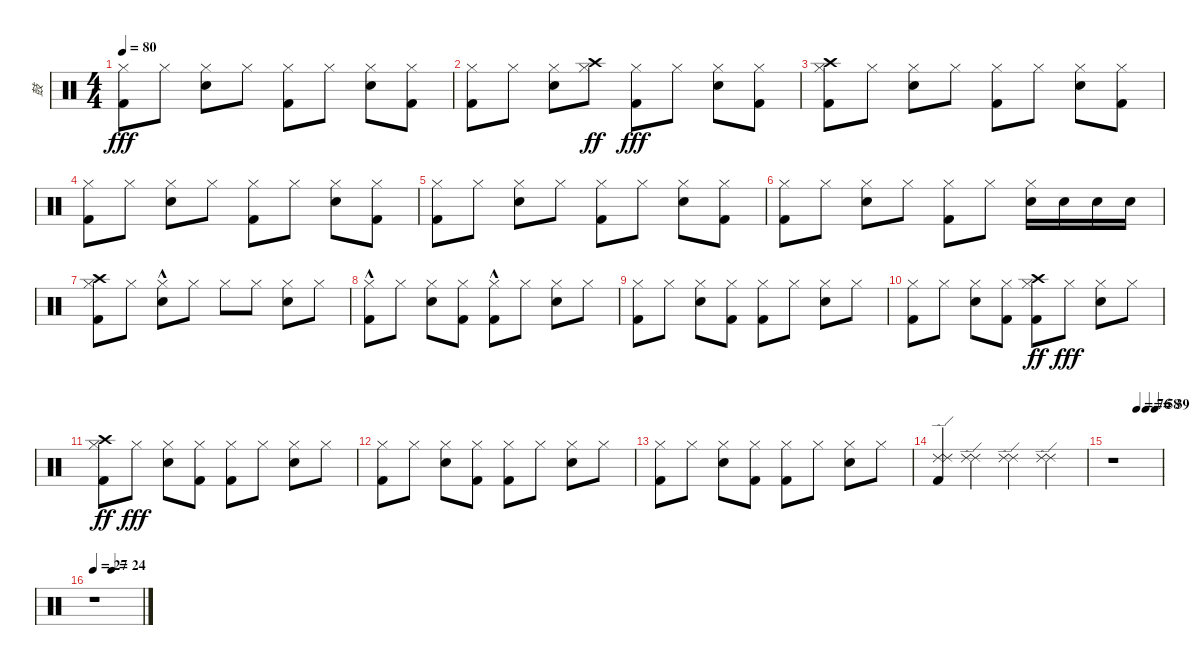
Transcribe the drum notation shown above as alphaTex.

\track ("鼓" "鼓") {instrument percussion}
\staff {score}
\articulation defaults
\ts (4 4)
\tempo 80
\clef neutral
\ks c
("Kick (hit) 2" "Hi-Hat (closed)").8{dy fff} "Hi-Hat (closed)".8 ("Snare (hit) 2" "Hi-Hat (closed)").8 "Hi-Hat (closed)".8 ("Kick (hit) 2" "Hi-Hat (closed)").8 "Hi-Hat (closed)".8 ("Snare (hit) 2" "Hi-Hat (closed)").8 ("Kick (hit) 2" "Hi-Hat (closed)").8 |
("Kick (hit) 2" "Hi-Hat (closed)").8 "Hi-Hat (closed)".8 ("Snare (hit) 2" "Hi-Hat (closed)").8 ("Hi-Hat (closed)" "Crash high (hit)").8{dy ff} ("Kick (hit) 2" "Hi-Hat (closed)").8{dy fff} "Hi-Hat (closed)".8 ("Snare (hit) 2" "Hi-Hat (closed)").8 ("Kick (hit) 2" "Hi-Hat (closed)").8 |
("Kick (hit) 2" "Hi-Hat (closed)" "Crash high (hit)").8 "Hi-Hat (closed)".8 ("Snare (hit) 2" "Hi-Hat (closed)").8 "Hi-Hat (closed)".8 ("Kick (hit) 2" "Hi-Hat (closed)").8 "Hi-Hat (closed)".8 ("Snare (hit) 2" "Hi-Hat (closed)").8 ("Kick (hit) 2" "Hi-Hat (closed)").8 |
("Hi-Hat (closed)" "Kick (hit) 2").8 "Hi-Hat (closed)".8 ("Hi-Hat (closed)" "Snare (hit) 2").8 "Hi-Hat (closed)".8 ("Hi-Hat (closed)" "Kick (hit) 2").8 "Hi-Hat (closed)".8 ("Hi-Hat (closed)" "Snare (hit) 2").8 ("Hi-Hat (closed)" "Kick (hit) 2").8 |
("Kick (hit) 2" "Hi-Hat (closed)").8 "Hi-Hat (closed)".8 ("Snare (hit) 2" "Hi-Hat (closed)").8 "Hi-Hat (closed)".8 ("Kick (hit) 2" "Hi-Hat (closed)").8 "Hi-Hat (closed)".8 ("Snare (hit) 2" "Hi-Hat (closed)").8 ("Kick (hit) 2" "Hi-Hat (closed)").8 |
("Hi-Hat (closed)" "Kick (hit) 2").8 "Hi-Hat (closed)".8 ("Hi-Hat (closed)" "Snare (hit) 2").8 "Hi-Hat (closed)".8 ("Hi-Hat (closed)" "Kick (hit) 2").8 "Hi-Hat (closed)".8 ("Snare (hit) 2" "Hi-Hat (closed)").16 "Snare (hit) 2".16 "Snare (hit) 2".16 "Snare (hit) 2".16 |
("Crash high (hit)" "Hi-Hat (closed)" "Kick (hit) 2").8 "Hi-Hat (closed)".8 ("Hi-Hat (closed)" "Snare (hit) 2"{hac}).8 "Hi-Hat (closed)".8 "Hi-Hat (closed)".8 "Hi-Hat (closed)".8 ("Snare (hit) 2" "Hi-Hat (closed)").8 "Hi-Hat (closed)".8 |
("Kick (hit) 2"{hac} "Hi-Hat (closed)").8 "Hi-Hat (closed)".8 ("Snare (hit) 2" "Hi-Hat (closed)").8 ("Kick (hit) 2" "Hi-Hat (closed)").8 ("Kick (hit) 2"{hac} "Hi-Hat (closed)").8 "Hi-Hat (closed)".8 ("Snare (hit) 2" "Hi-Hat (closed)").8 "Hi-Hat (closed)".8 |
("Kick (hit) 2" "Hi-Hat (closed)").8 "Hi-Hat (closed)".8 ("Snare (hit) 2" "Hi-Hat (closed)").8 ("Kick (hit) 2" "Hi-Hat (closed)").8 ("Kick (hit) 2" "Hi-Hat (closed)").8 "Hi-Hat (closed)".8 ("Snare (hit) 2" "Hi-Hat (closed)").8 "Hi-Hat (closed)".8 |
("Kick (hit) 2" "Hi-Hat (closed)").8 "Hi-Hat (closed)".8 ("Snare (hit) 2" "Hi-Hat (closed)").8 ("Kick (hit) 2" "Hi-Hat (closed)").8 ("Kick (hit) 2" "Hi-Hat (closed)" "Crash high (hit)").8{dy ff} "Hi-Hat (closed)".8{dy fff} ("Snare (hit) 2" "Hi-Hat (closed)").8 "Hi-Hat (closed)".8 |
("Kick (hit) 2" "Hi-Hat (closed)" "Crash high (hit)").8{dy ff} "Hi-Hat (closed)".8{dy fff} ("Snare (hit) 2" "Hi-Hat (closed)").8 ("Kick (hit) 2" "Hi-Hat (closed)").8 ("Kick (hit) 2" "Hi-Hat (closed)").8 "Hi-Hat (closed)".8 ("Snare (hit) 2" "Hi-Hat (closed)").8 "Hi-Hat (closed)".8 |
("Kick (hit) 2" "Hi-Hat (closed)").8 "Hi-Hat (closed)".8 ("Snare (hit) 2" "Hi-Hat (closed)").8 ("Kick (hit) 2" "Hi-Hat (closed)").8 ("Hi-Hat (closed)" "Kick (hit) 2").8 "Hi-Hat (closed)".8 ("Hi-Hat (closed)" "Snare (hit) 2").8 "Hi-Hat (closed)".8 |
("Hi-Hat (closed)" "Kick (hit) 2").8 "Hi-Hat (closed)".8 ("Hi-Hat (closed)" "Snare (hit) 2").8 ("Hi-Hat (closed)" "Kick (hit) 2").8 ("Kick (hit) 2" "Hi-Hat (closed)").8 "Hi-Hat (closed)".8 ("Snare (hit) 2" "Hi-Hat (closed)").8 "Hi-Hat (closed)".8 |
("Kick (hit) 2" "Ride (edge) 2" "Ride (edge) 2").4 ("Ride (edge) 2" "Ride (edge) 2").4 ("Ride (edge) 2" "Ride (edge) 2").4 ("Ride (edge) 2" "Ride (edge) 2").4 |
\tempo (76 0.5)
\tempo (58 0.6875)
\tempo (39 0.875)
r.1 |
\tempo 27
\tempo (24 0.375)
r.1
